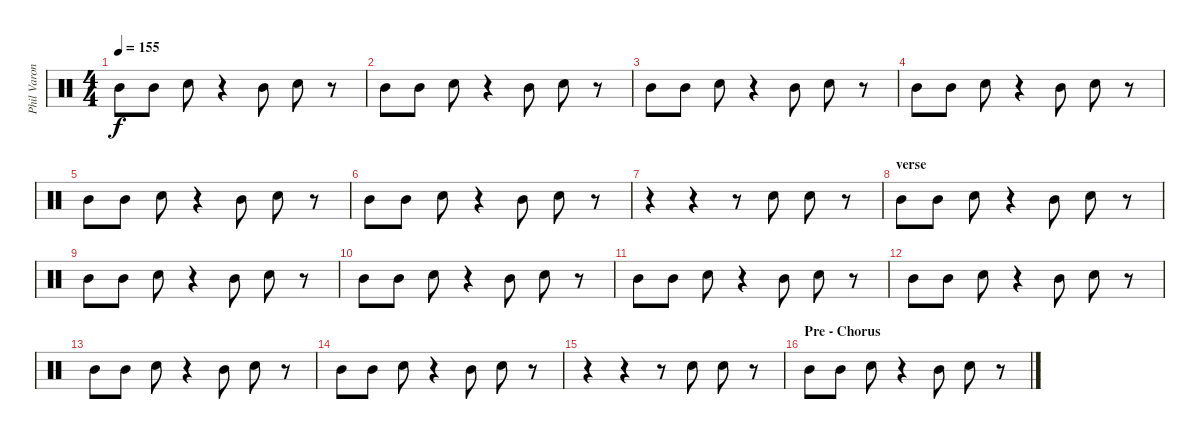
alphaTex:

\track ("Phil Varone" "Phil Varon") {instrument percussion}
\staff {score}
\articulation defaults
\ts (4 4)
\tempo 155
\clef neutral
\ks c "Mid Tom (hit)".8{dy f} "Mid Tom (hit)".8 "Snare (hit) 2".8
r.4 "Mid Tom (hit)".8 "Snare (hit) 2".8 r.8 |
"Mid Tom (hit)".8 "Mid Tom (hit)".8 "Snare (hit) 2".8 r.4 "Mid Tom (hit)".8 "Snare (hit) 2".8 r.8 |
"Mid Tom (hit)".8 "Mid Tom (hit)".8 "Snare (hit) 2".8 r.4 "Mid Tom (hit)".8 "Snare (hit) 2".8 r.8 |
"Mid Tom (hit)".8 "Mid Tom (hit)".8 "Snare (hit) 2".8 r.4 "Mid Tom (hit)".8 "Snare (hit) 2".8 r.8 |
"Mid Tom (hit)".8 "Mid Tom (hit)".8 "Snare (hit) 2".8 r.4 "Mid Tom (hit)".8 "Snare (hit) 2".8 r.8 |
"Mid Tom (hit)".8 "Mid Tom (hit)".8 "Snare (hit) 2".8 r.4 "Mid Tom (hit)".8 "Snare (hit) 2".8 r.8 |
r.4 r.4 r.8 "Snare (hit) 2".8 "Snare (hit) 2".8 r.8 |
\section ("" "verse")
"Mid Tom (hit)".8 "Mid Tom (hit)".8 "Snare (hit) 2".8 r.4 "Mid Tom (hit)".8 "Snare (hit) 2".8 r.8 |
"Mid Tom (hit)".8 "Mid Tom (hit)".8 "Snare (hit) 2".8 r.4 "Mid Tom (hit)".8 "Snare (hit) 2".8 r.8 |
"Mid Tom (hit)".8 "Mid Tom (hit)".8 "Snare (hit) 2".8 r.4 "Mid Tom (hit)".8 "Snare (hit) 2".8 r.8 |
"Mid Tom (hit)".8 "Mid Tom (hit)".8 "Snare (hit) 2".8 r.4 "Mid Tom (hit)".8 "Snare (hit) 2".8 r.8 |
"Mid Tom (hit)".8 "Mid Tom (hit)".8 "Snare (hit) 2".8 r.4 "Mid Tom (hit)".8 "Snare (hit) 2".8 r.8 |
"Mid Tom (hit)".8 "Mid Tom (hit)".8 "Snare (hit) 2".8 r.4 "Mid Tom (hit)".8 "Snare (hit) 2".8 r.8 |
"Mid Tom (hit)".8 "Mid Tom (hit)".8 "Snare (hit) 2".8 r.4 "Mid Tom (hit)".8 "Snare (hit) 2".8 r.8 |
r.4 r.4 r.8 "Snare (hit) 2".8 "Snare (hit) 2".8 r.8 |
\section ("" "Pre - Chorus")
"Mid Tom (hit)".8 "Mid Tom (hit)".8 "Snare (hit) 2".8 r.4 "Mid Tom (hit)".8 "Snare (hit) 2".8 r.8
